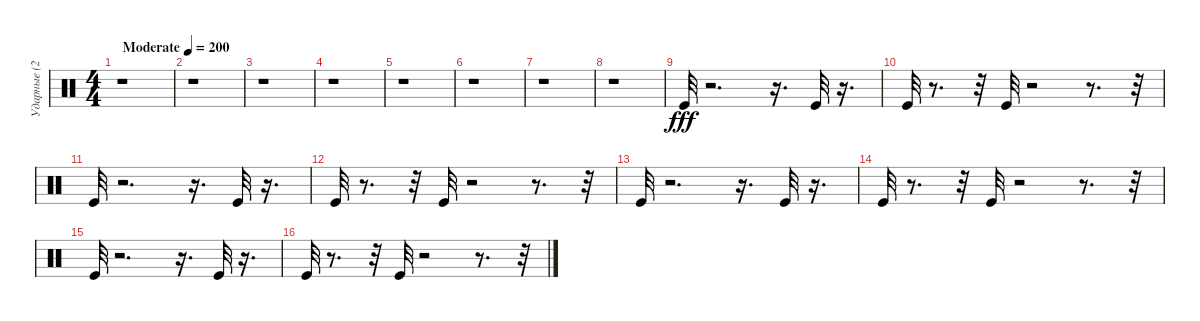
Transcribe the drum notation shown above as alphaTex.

\track ("Ударные (2)" "Ударные (2") {instrument percussion}
\staff {score}
\articulation defaults
\ts (4 4)
\tempo (200 "Moderate")
\clef neutral
\ks c
r.1{dy fff} |
r.1 |
r.1 |
r.1 |
r.1 |
r.1 |
r.1 |
r.1 |
"Kick (hit)".32 r.2{d} r.16{d} "Kick (hit)".32 r.16{d} |
"Kick (hit)".32 r.8{d} r.32 "Kick (hit)".32 r.2 r.8{d} r.32 |
"Kick (hit)".32 r.2{d} r.16{d} "Kick (hit)".32 r.16{d} |
"Kick (hit)".32 r.8{d} r.32 "Kick (hit)".32 r.2 r.8{d} r.32 |
"Kick (hit)".32 r.2{d} r.16{d} "Kick (hit)".32 r.16{d} |
"Kick (hit)".32 r.8{d} r.32 "Kick (hit)".32 r.2 r.8{d} r.32 |
"Kick (hit)".32 r.2{d} r.16{d} "Kick (hit)".32 r.16{d} |
"Kick (hit)".32 r.8{d} r.32 "Kick (hit)".32 r.2 r.8{d} r.32
